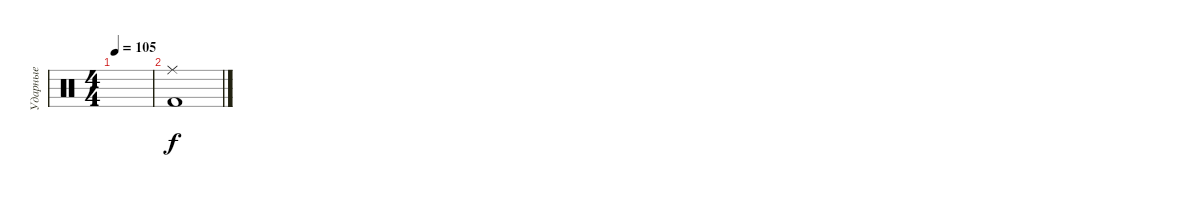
\track ("Ударные" "Ударные") {instrument percussion}
\staff {score}
\articulation defaults
\ts (4 4)
\tempo 105
\clef neutral
\ks c
|
("Ride (middle)" "Kick (hit) 2").1
